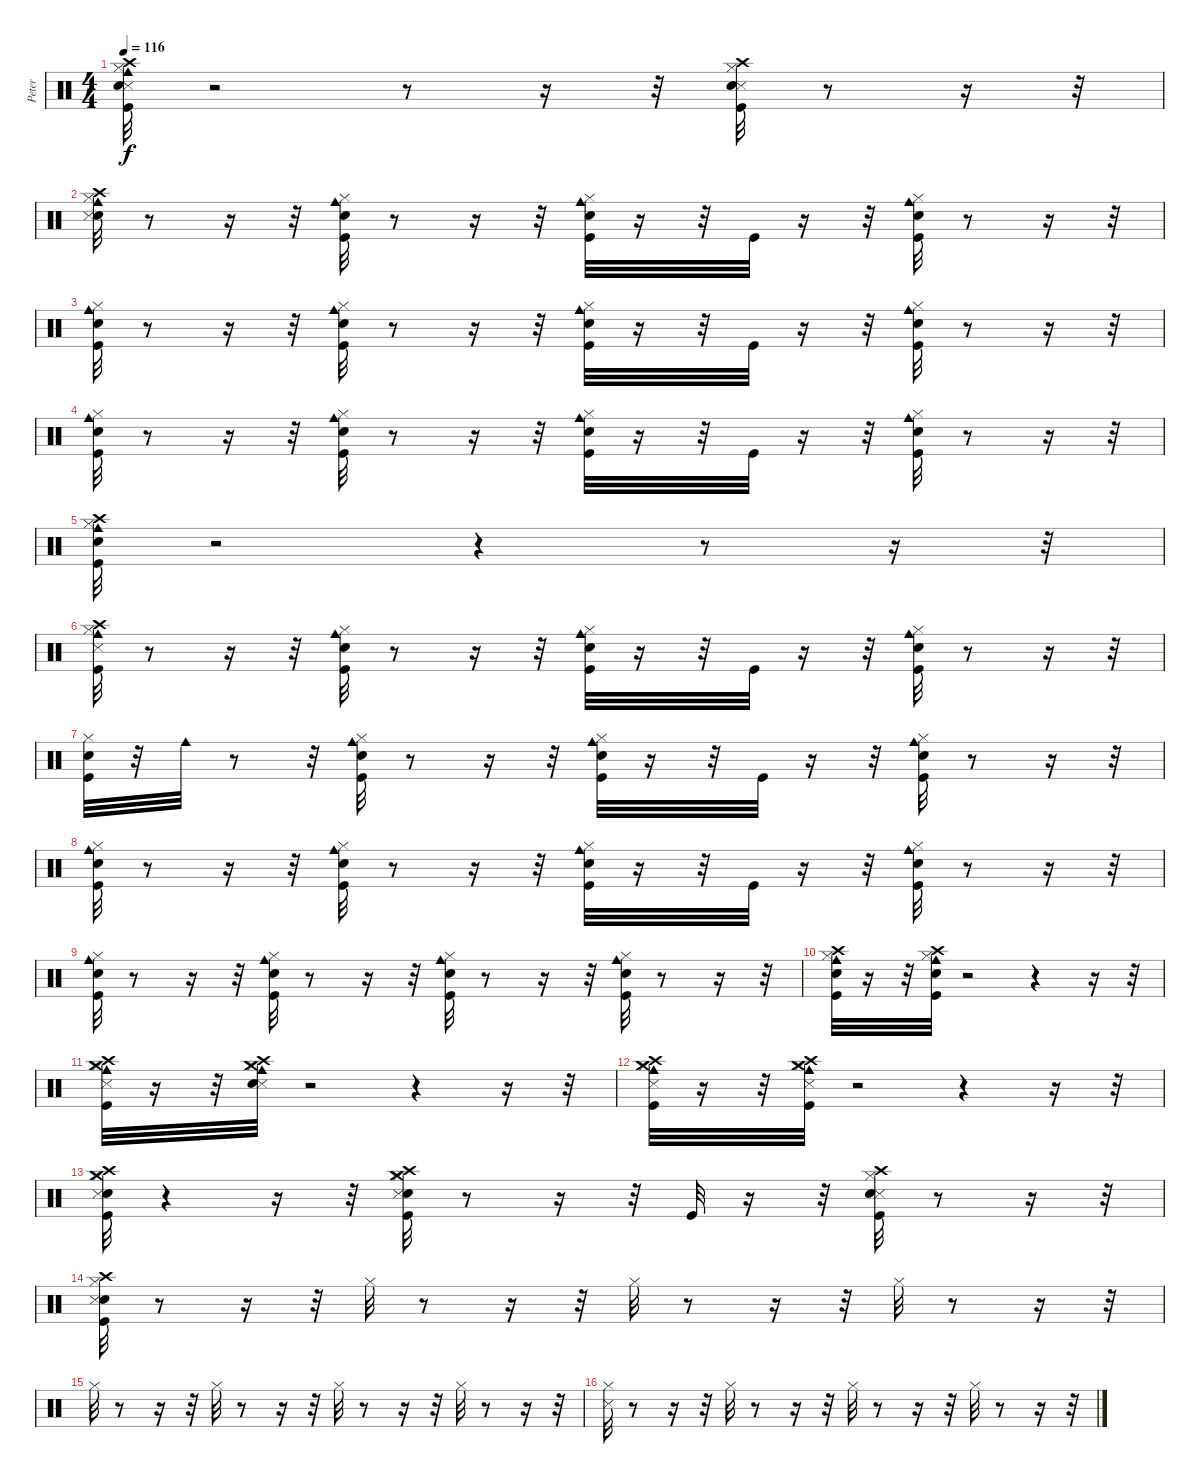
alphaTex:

\track ("Peter" "Peter") {instrument percussion}
\staff {score}
\articulation defaults
\ts (4 4)
\tempo 116
\clef neutral
\ks c
("Crash high (hit)" "Cowbell medium (hit)" "Snare (side stick) 3" "Snare (hit) 2" "Hi-Hat (closed)" "Kick (hit)").32{dy f} r.2 r.8 r.16 r.32 ("Crash high (hit)" "Hi-Hat (closed)" "Snare (side stick) 3" "Kick (hit)" "Snare (hit) 2").32 r.8 r.16 r.32 |
("Snare (hit) 2" "Cowbell medium (hit)" "Crash high (hit)" "Hi-Hat (closed)" "Snare (side stick) 3").32 r.8 r.16 r.32 ("Cowbell medium (hit)" "Hi-Hat (closed)" "Snare (hit) 2" "Kick (hit)").32 r.8 r.16 r.32 ("Cowbell medium (hit)" "Hi-Hat (closed)" "Snare (hit) 2" "Kick (hit)").32 r.16 r.32 "Kick (hit)".32 r.16 r.32 ("Cowbell medium (hit)" "Kick (hit)" "Snare (hit) 2" "Hi-Hat (closed)").32 r.8 r.16 r.32 |
("Cowbell medium (hit)" "Snare (hit) 2" "Kick (hit)" "Hi-Hat (closed)").32 r.8 r.16 r.32 ("Cowbell medium (hit)" "Kick (hit)" "Snare (hit) 2" "Hi-Hat (closed)").32 r.8 r.16 r.32 ("Cowbell medium (hit)" "Kick (hit)" "Snare (hit) 2" "Hi-Hat (closed)").32 r.16 r.32 "Kick (hit)".32 r.16 r.32 ("Cowbell medium (hit)" "Hi-Hat (closed)" "Snare (hit) 2" "Kick (hit)").32 r.8 r.16 r.32 |
("Cowbell medium (hit)" "Hi-Hat (closed)" "Snare (hit) 2" "Kick (hit)").32 r.8 r.16 r.32 ("Cowbell medium (hit)" "Hi-Hat (closed)" "Snare (hit) 2" "Kick (hit)").32 r.8 r.16 r.32 ("Cowbell medium (hit)" "Hi-Hat (closed)" "Snare (hit) 2" "Kick (hit)").32 r.16 r.32 "Kick (hit)".32 r.16 r.32 ("Cowbell medium (hit)" "Hi-Hat (closed)" "Snare (hit) 2" "Kick (hit)").32 r.8 r.16 r.32 |
("Cowbell medium (hit)" "Crash high (hit)" "Hi-Hat (closed)" "Snare (hit) 2" "Kick (hit)").32 r.2 r.4 r.8 r.16 r.32 |
("Kick (hit)" "Hi-Hat (closed)" "Crash high (hit)" "Cowbell medium (hit)" "Snare (side stick) 3").32 r.8 r.16 r.32 ("Cowbell medium (hit)" "Hi-Hat (closed)" "Snare (hit) 2" "Kick (hit)").32 r.8 r.16 r.32 ("Cowbell medium (hit)" "Hi-Hat (closed)" "Snare (hit) 2" "Kick (hit)").32 r.16 r.32 "Kick (hit)".32 r.16 r.32 ("Cowbell medium (hit)" "Hi-Hat (closed)" "Snare (hit) 2" "Kick (hit)").32 r.8 r.16 r.32 |
("Hi-Hat (closed)" "Snare (hit) 2" "Kick (hit)").32 r.32 "Cowbell medium (hit)".32 r.8 r.32 ("Cowbell medium (hit)" "Hi-Hat (closed)" "Snare (hit) 2" "Kick (hit)").32 r.8 r.16 r.32 ("Cowbell medium (hit)" "Hi-Hat (closed)" "Snare (hit) 2" "Kick (hit)").32 r.16 r.32 "Kick (hit)".32 r.16 r.32 ("Cowbell medium (hit)" "Hi-Hat (closed)" "Snare (hit) 2" "Kick (hit)").32 r.8 r.16 r.32 |
("Cowbell medium (hit)" "Hi-Hat (closed)" "Snare (hit) 2" "Kick (hit)").32 r.8 r.16 r.32 ("Cowbell medium (hit)" "Hi-Hat (closed)" "Snare (hit) 2" "Kick (hit)").32 r.8 r.16 r.32 ("Cowbell medium (hit)" "Hi-Hat (closed)" "Snare (hit) 2" "Kick (hit)").32 r.16 r.32 "Kick (hit)".32 r.16 r.32 ("Cowbell medium (hit)" "Hi-Hat (closed)" "Kick (hit)" "Snare (hit) 2").32 r.8 r.16 r.32 |
("Cowbell medium (hit)" "Hi-Hat (closed)" "Kick (hit)" "Snare (hit) 2").32 r.8 r.16 r.32 ("Cowbell medium (hit)" "Hi-Hat (closed)" "Kick (hit)" "Snare (hit) 2").32 r.8 r.16 r.32 ("Cowbell medium (hit)" "Hi-Hat (closed)" "Kick (hit)" "Snare (hit) 2").32 r.8 r.16 r.32 ("Cowbell medium (hit)" "Hi-Hat (closed)" "Kick (hit)" "Snare (hit) 2").32 r.8 r.16 r.32 |
("Cowbell medium (hit)" "Hi-Hat (closed)" "Kick (hit)" "Crash high (hit)" "Snare (hit) 2").32 r.16 r.32 ("Hi-Hat (closed)" "Cowbell medium (hit)" "Kick (hit)" "Crash high (hit)" "Snare (hit) 2").32 r.2 r.4 r.16 r.32 |
("Crash medium (hit)" "Cowbell medium (hit)" "Crash high (hit)" "Hi-Hat (closed)" "Kick (hit)" "Snare (side stick) 3").32 r.16 r.32 ("Crash medium (hit)" "Cowbell medium (hit)" "Snare (side stick) 3" "Crash high (hit)" "Hi-Hat (closed)" "Snare (hit) 2").32 r.2 r.4 r.16 r.32 |
("Crash medium (hit)" "Cowbell medium (hit)" "Crash high (hit)" "Hi-Hat (closed)" "Kick (hit)" "Snare (side stick) 3").32 r.16 r.32 ("Crash medium (hit)" "Cowbell medium (hit)" "Crash high (hit)" "Hi-Hat (closed)" "Kick (hit)" "Snare (side stick) 3").32 r.2 r.4 r.16 r.32 |
("Crash medium (hit)" "Snare (hit) 2" "Crash high (hit)" "Hi-Hat (closed)" "Kick (hit)" "Snare (side stick) 3").32 r.4 r.16 r.32 ("Crash medium (hit)" "Crash high (hit)" "Hi-Hat (closed)" "Snare (hit) 2" "Snare (side stick) 3" "Kick (hit)").32 r.8 r.16 r.32 "Kick (hit)".32 r.16 r.32 ("Crash high (hit)" "Hi-Hat (closed)" "Kick (hit)" "Snare (side stick) 3" "Snare (hit) 2").32 r.8 r.16 r.32 |
("Crash high (hit)" "Hi-Hat (closed)" "Snare (hit) 2" "Snare (side stick) 3" "Kick (hit)").32 r.8 r.16 r.32 "Hi-Hat (closed)".32 r.8 r.16 r.32 "Hi-Hat (closed)".32 r.8 r.16 r.32 "Hi-Hat (closed)".32 r.8 r.16 r.32 |
"Hi-Hat (closed)".32 r.8 r.16 r.32 "Hi-Hat (closed)".32 r.8 r.16 r.32 "Hi-Hat (closed)".32 r.8 r.16 r.32 "Hi-Hat (closed)".32 r.8 r.16 r.32 |
("Snare (side stick) 3" "Hi-Hat (closed)").32 r.8 r.16 r.32 "Hi-Hat (closed)".32 r.8 r.16 r.32 "Hi-Hat (closed)".32 r.8 r.16 r.32 "Hi-Hat (closed)".32 r.8 r.16 r.32
